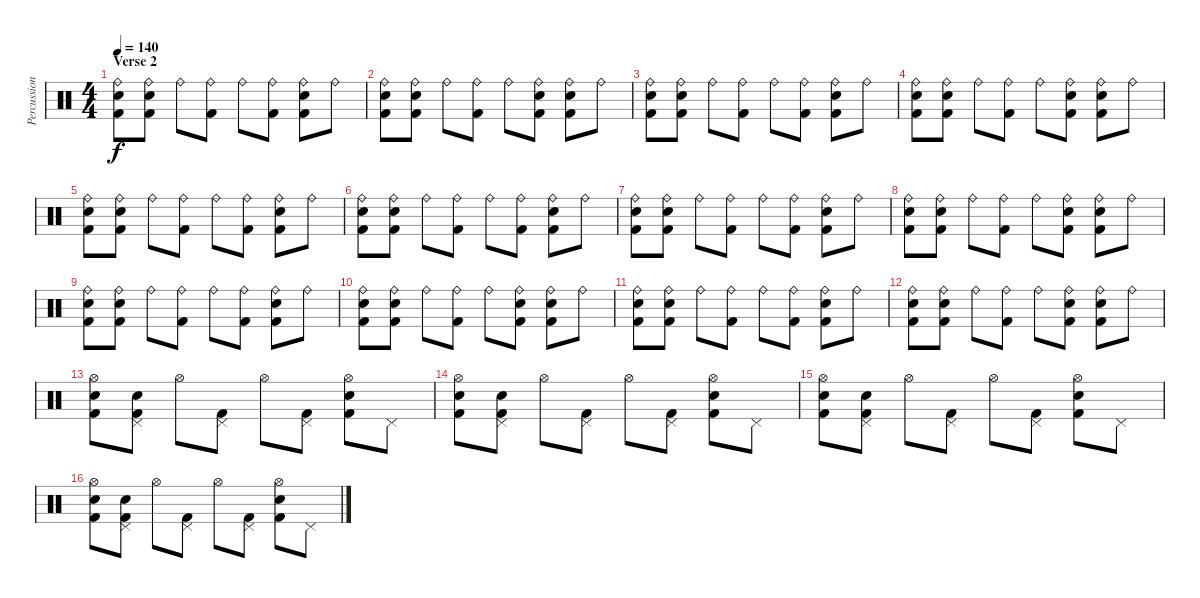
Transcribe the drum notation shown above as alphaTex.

\track ("Percussion" "Percussion") {instrument percussion}
\staff {score}
\articulation defaults
\ts (4 4)
\section ("" "Verse 2")
\tempo 140
\clef neutral
\ks c
("Ride (bell)" "Electric Snare (hit)" "Kick (hit) 2").8{dy f} ("Ride (bell)" "Electric Snare (hit)" "Kick (hit) 2").8 "Ride (bell)".8 ("Ride (bell)" "Kick (hit) 2").8 "Ride (bell)".8 ("Ride (bell)" "Kick (hit) 2").8 ("Ride (bell)" "Electric Snare (hit)" "Kick (hit) 2").8 "Ride (bell)".8 |
("Ride (bell)" "Electric Snare (hit)" "Kick (hit) 2").8 ("Ride (bell)" "Electric Snare (hit)" "Kick (hit) 2").8 "Ride (bell)".8 ("Ride (bell)" "Kick (hit) 2").8 "Ride (bell)".8 ("Ride (bell)" "Electric Snare (hit)" "Kick (hit) 2").8 ("Ride (bell)" "Electric Snare (hit)" "Kick (hit) 2").8 "Ride (bell)".8 |
("Ride (bell)" "Electric Snare (hit)" "Kick (hit) 2").8 ("Ride (bell)" "Electric Snare (hit)" "Kick (hit) 2").8 "Ride (bell)".8 ("Ride (bell)" "Kick (hit) 2").8 "Ride (bell)".8 ("Ride (bell)" "Kick (hit) 2").8 ("Ride (bell)" "Electric Snare (hit)" "Kick (hit) 2").8 "Ride (bell)".8 |
("Ride (bell)" "Electric Snare (hit)" "Kick (hit) 2").8 ("Ride (bell)" "Electric Snare (hit)" "Kick (hit) 2").8 "Ride (bell)".8 ("Ride (bell)" "Kick (hit) 2").8 "Ride (bell)".8 ("Ride (bell)" "Electric Snare (hit)" "Kick (hit) 2").8 ("Ride (bell)" "Electric Snare (hit)" "Kick (hit) 2").8 "Ride (bell)".8 |
("Ride (bell)" "Electric Snare (hit)" "Kick (hit) 2").8 ("Ride (bell)" "Electric Snare (hit)" "Kick (hit) 2").8 "Ride (bell)".8 ("Ride (bell)" "Kick (hit) 2").8 "Ride (bell)".8 ("Ride (bell)" "Kick (hit) 2").8 ("Ride (bell)" "Electric Snare (hit)" "Kick (hit) 2").8 "Ride (bell)".8 |
("Ride (bell)" "Electric Snare (hit)" "Kick (hit) 2").8 ("Ride (bell)" "Electric Snare (hit)" "Kick (hit) 2").8 "Ride (bell)".8 ("Ride (bell)" "Kick (hit) 2").8 "Ride (bell)".8 ("Ride (bell)" "Kick (hit) 2").8 ("Ride (bell)" "Electric Snare (hit)" "Kick (hit) 2").8 "Ride (bell)".8 |
("Ride (bell)" "Electric Snare (hit)" "Kick (hit) 2").8 ("Ride (bell)" "Electric Snare (hit)" "Kick (hit) 2").8 "Ride (bell)".8 ("Ride (bell)" "Kick (hit) 2").8 "Ride (bell)".8 ("Ride (bell)" "Kick (hit) 2").8 ("Ride (bell)" "Electric Snare (hit)" "Kick (hit) 2").8 "Ride (bell)".8 |
("Ride (bell)" "Electric Snare (hit)" "Kick (hit) 2").8 ("Ride (bell)" "Electric Snare (hit)" "Kick (hit) 2").8 "Ride (bell)".8 ("Ride (bell)" "Kick (hit) 2").8 "Ride (bell)".8 ("Ride (bell)" "Electric Snare (hit)" "Kick (hit) 2").8 ("Ride (bell)" "Electric Snare (hit)" "Kick (hit) 2").8 "Ride (bell)".8 |
("Ride (bell)" "Electric Snare (hit)" "Kick (hit) 2").8 ("Ride (bell)" "Electric Snare (hit)" "Kick (hit) 2").8 "Ride (bell)".8 ("Ride (bell)" "Kick (hit) 2").8 "Ride (bell)".8 ("Ride (bell)" "Kick (hit) 2").8 ("Ride (bell)" "Electric Snare (hit)" "Kick (hit) 2").8 "Ride (bell)".8 |
("Ride (bell)" "Electric Snare (hit)" "Kick (hit) 2").8 ("Ride (bell)" "Electric Snare (hit)" "Kick (hit) 2").8 "Ride (bell)".8 ("Ride (bell)" "Kick (hit) 2").8 "Ride (bell)".8 ("Ride (bell)" "Electric Snare (hit)" "Kick (hit) 2").8 ("Ride (bell)" "Electric Snare (hit)" "Kick (hit) 2").8 "Ride (bell)".8 |
("Ride (bell)" "Electric Snare (hit)" "Kick (hit) 2").8 ("Ride (bell)" "Electric Snare (hit)" "Kick (hit) 2").8 "Ride (bell)".8 ("Ride (bell)" "Kick (hit) 2").8 "Ride (bell)".8 ("Ride (bell)" "Kick (hit) 2").8 ("Ride (bell)" "Electric Snare (hit)" "Kick (hit) 2").8 "Ride (bell)".8 |
("Ride (bell)" "Electric Snare (hit)" "Kick (hit) 2").8 ("Ride (bell)" "Electric Snare (hit)" "Kick (hit) 2").8 "Ride (bell)".8 ("Ride (bell)" "Kick (hit) 2").8 "Ride (bell)".8 ("Ride (bell)" "Electric Snare (hit)" "Kick (hit) 2").8 ("Ride (bell)" "Electric Snare (hit)" "Kick (hit) 2").8 "Ride (bell)".8 |
("Hi-Hat (open)" "Electric Snare (hit)" "Kick (hit) 2").8 ("Pedal Hi-Hat (hit)" "Electric Snare (hit)" "Kick (hit) 2").8 "Hi-Hat (open)".8 ("Pedal Hi-Hat (hit)" "Kick (hit) 2").8 "Hi-Hat (open)".8 ("Pedal Hi-Hat (hit)" "Kick (hit) 2").8 ("Hi-Hat (open)" "Electric Snare (hit)" "Kick (hit) 2").8 "Pedal Hi-Hat (hit)".8 |
("Hi-Hat (open)" "Electric Snare (hit)" "Kick (hit) 2").8 ("Pedal Hi-Hat (hit)" "Electric Snare (hit)" "Kick (hit) 2").8 "Hi-Hat (open)".8 ("Pedal Hi-Hat (hit)" "Kick (hit) 2").8 "Hi-Hat (open)".8 ("Pedal Hi-Hat (hit)" "Kick (hit) 2").8 ("Hi-Hat (open)" "Electric Snare (hit)" "Kick (hit) 2").8 "Pedal Hi-Hat (hit)".8 |
("Hi-Hat (open)" "Electric Snare (hit)" "Kick (hit) 2").8 ("Pedal Hi-Hat (hit)" "Electric Snare (hit)" "Kick (hit) 2").8 "Hi-Hat (open)".8 ("Pedal Hi-Hat (hit)" "Kick (hit) 2").8 "Hi-Hat (open)".8 ("Pedal Hi-Hat (hit)" "Kick (hit) 2").8 ("Hi-Hat (open)" "Electric Snare (hit)" "Kick (hit) 2").8 "Pedal Hi-Hat (hit)".8 |
("Hi-Hat (open)" "Electric Snare (hit)" "Kick (hit) 2").8 ("Pedal Hi-Hat (hit)" "Electric Snare (hit)" "Kick (hit) 2").8 "Hi-Hat (open)".8 ("Pedal Hi-Hat (hit)" "Kick (hit) 2").8 "Hi-Hat (open)".8 ("Pedal Hi-Hat (hit)" "Kick (hit) 2").8 ("Hi-Hat (open)" "Electric Snare (hit)" "Kick (hit) 2").8 "Pedal Hi-Hat (hit)".8
